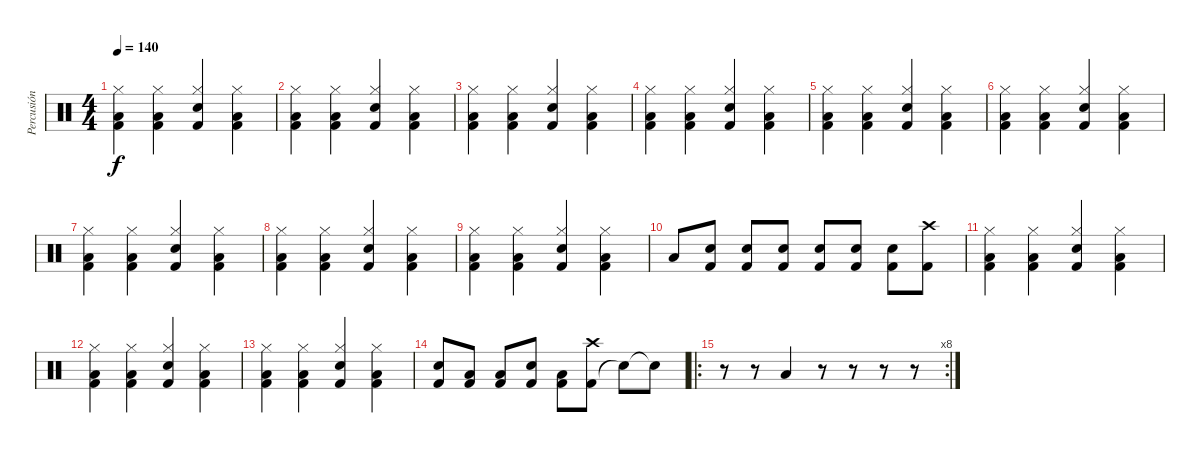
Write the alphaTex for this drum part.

\track ("Percusión" "Percusión") {instrument percussion}
\staff {score}
\articulation defaults
\ts (4 4)
\tempo 140
\clef neutral
\ks c
("Kick (hit) 2" "Low Tom (hit)" "Hi-Hat (closed)").4{dy f} ("Kick (hit) 2" "Low Tom (hit)" "Hi-Hat (closed)").4 ("Kick (hit) 2" "Snare (hit) 2" "Hi-Hat (closed)").4 ("Kick (hit) 2" "Low Tom (hit)" "Hi-Hat (closed)").4 |
("Kick (hit) 2" "Low Tom (hit)" "Hi-Hat (closed)").4 ("Kick (hit) 2" "Low Tom (hit)" "Hi-Hat (closed)").4 ("Kick (hit) 2" "Snare (hit) 2" "Hi-Hat (closed)").4 ("Kick (hit) 2" "Low Tom (hit)" "Hi-Hat (closed)").4 |
("Kick (hit) 2" "Low Tom (hit)" "Hi-Hat (closed)").4 ("Kick (hit) 2" "Low Tom (hit)" "Hi-Hat (closed)").4 ("Kick (hit) 2" "Snare (hit) 2" "Hi-Hat (closed)").4 ("Kick (hit) 2" "Low Tom (hit)" "Hi-Hat (closed)").4 |
("Kick (hit) 2" "Low Tom (hit)" "Hi-Hat (closed)").4 ("Kick (hit) 2" "Low Tom (hit)" "Hi-Hat (closed)").4 ("Kick (hit) 2" "Snare (hit) 2" "Hi-Hat (closed)").4 ("Kick (hit) 2" "Low Tom (hit)" "Hi-Hat (closed)").4 |
("Kick (hit) 2" "Low Tom (hit)" "Hi-Hat (closed)").4 ("Kick (hit) 2" "Low Tom (hit)" "Hi-Hat (closed)").4 ("Kick (hit) 2" "Snare (hit) 2" "Hi-Hat (closed)").4 ("Kick (hit) 2" "Low Tom (hit)" "Hi-Hat (closed)").4 |
("Kick (hit) 2" "Low Tom (hit)" "Hi-Hat (closed)").4 ("Kick (hit) 2" "Low Tom (hit)" "Hi-Hat (closed)").4 ("Kick (hit) 2" "Snare (hit) 2" "Hi-Hat (closed)").4 ("Kick (hit) 2" "Low Tom (hit)" "Hi-Hat (closed)").4 |
("Kick (hit) 2" "Low Tom (hit)" "Hi-Hat (closed)").4 ("Kick (hit) 2" "Low Tom (hit)" "Hi-Hat (closed)").4 ("Kick (hit) 2" "Snare (hit) 2" "Hi-Hat (closed)").4 ("Kick (hit) 2" "Low Tom (hit)" "Hi-Hat (closed)").4 |
("Kick (hit) 2" "Low Tom (hit)" "Hi-Hat (closed)").4 ("Kick (hit) 2" "Low Tom (hit)" "Hi-Hat (closed)").4 ("Kick (hit) 2" "Snare (hit) 2" "Hi-Hat (closed)").4 ("Kick (hit) 2" "Low Tom (hit)" "Hi-Hat (closed)").4 |
("Kick (hit) 2" "Low Tom (hit)" "Hi-Hat (closed)").4 ("Kick (hit) 2" "Low Tom (hit)" "Hi-Hat (closed)").4 ("Kick (hit) 2" "Snare (hit) 2" "Hi-Hat (closed)").4 ("Kick (hit) 2" "Low Tom (hit)" "Hi-Hat (closed)").4 |
"Low Tom (hit)".8 ("Kick (hit) 2" "Snare (hit) 2").8 ("Kick (hit) 2" "Snare (hit) 2").8 ("Kick (hit) 2" "Snare (hit) 2").8 ("Kick (hit) 2" "Snare (hit) 2").8 ("Kick (hit) 2" "Snare (hit) 2").8 ("Kick (hit) 2" "Snare (hit) 2").8 ("Kick (hit) 2" "Crash high (hit)").8 |
("Kick (hit) 2" "Low Tom (hit)" "Hi-Hat (closed)").4 ("Kick (hit) 2" "Low Tom (hit)" "Hi-Hat (closed)").4 ("Kick (hit) 2" "Snare (hit) 2" "Hi-Hat (closed)").4 ("Kick (hit) 2" "Low Tom (hit)" "Hi-Hat (closed)").4 |
("Kick (hit) 2" "Low Tom (hit)" "Hi-Hat (closed)").4 ("Kick (hit) 2" "Low Tom (hit)" "Hi-Hat (closed)").4 ("Kick (hit) 2" "Snare (hit) 2" "Hi-Hat (closed)").4 ("Kick (hit) 2" "Low Tom (hit)" "Hi-Hat (closed)").4 |
("Kick (hit) 2" "Low Tom (hit)" "Hi-Hat (closed)").4 ("Kick (hit) 2" "Low Tom (hit)" "Hi-Hat (closed)").4 ("Kick (hit) 2" "Snare (hit) 2" "Hi-Hat (closed)").4 ("Kick (hit) 2" "Low Tom (hit)" "Hi-Hat (closed)").4 |
("Kick (hit) 2" "Snare (hit) 2").8 ("Kick (hit) 2" "Low Tom (hit)").8 ("Kick (hit) 2" "Low Tom (hit)").8 ("Kick (hit) 2" "Snare (hit) 2").8 ("Kick (hit) 2" "Low Tom (hit)").8 ("Kick (hit) 2" "Crash high (hit)").8 "Snare (hit)"{t}.8 "Snare (hit)"{t}.8 |
\ro
\rc 8
r.8 r.8 "Low Tom (hit)".4 r.8 r.8 r.8 r.8
